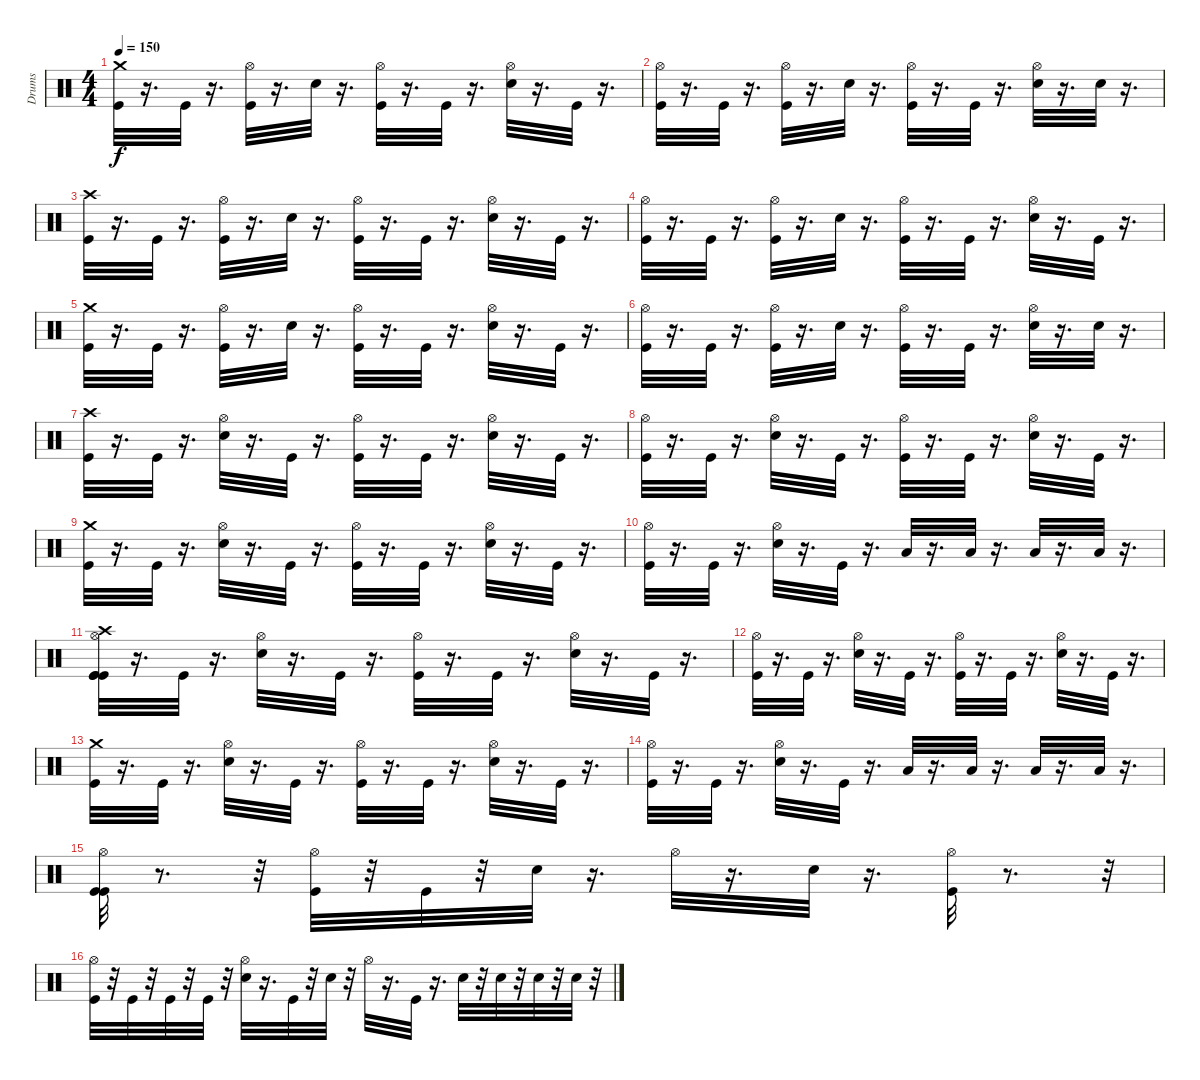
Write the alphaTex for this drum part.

\track ("Drums" "Drums") {instrument percussion}
\staff {score}
\articulation defaults
\ts (4 4)
\tempo 150
\clef neutral
\ks c
("Crash medium (hit)" "Kick (hit)").32{dy f} r.16{d} "Kick (hit)".32 r.16{d} ("Hi-Hat (open)" "Kick (hit)").32 r.16{d} "Electric Snare (hit)".32 r.16{d} ("Hi-Hat (open)" "Kick (hit)").32 r.16{d} "Kick (hit)".32 r.16{d} ("Hi-Hat (open)" "Electric Snare (hit)").32 r.16{d} "Kick (hit)".32 r.16{d} |
("Hi-Hat (open)" "Kick (hit)").32 r.16{d} "Kick (hit)".32 r.16{d} ("Hi-Hat (open)" "Kick (hit)").32 r.16{d} "Electric Snare (hit)".32 r.16{d} ("Hi-Hat (open)" "Kick (hit)").32 r.16{d} "Kick (hit)".32 r.16{d} ("Hi-Hat (open)" "Electric Snare (hit)").32 r.16{d} "Electric Snare (hit)".32 r.16{d} |
("Crash high (hit)" "Kick (hit)").32 r.16{d} "Kick (hit)".32 r.16{d} ("Hi-Hat (open)" "Kick (hit)").32 r.16{d} "Electric Snare (hit)".32 r.16{d} ("Hi-Hat (open)" "Kick (hit)").32 r.16{d} "Kick (hit)".32 r.16{d} ("Hi-Hat (open)" "Electric Snare (hit)").32 r.16{d} "Kick (hit)".32 r.16{d} |
("Hi-Hat (open)" "Kick (hit)").32 r.16{d} "Kick (hit)".32 r.16{d} ("Hi-Hat (open)" "Kick (hit)").32 r.16{d} "Electric Snare (hit)".32 r.16{d} ("Hi-Hat (open)" "Kick (hit)").32 r.16{d} "Kick (hit)".32 r.16{d} ("Hi-Hat (open)" "Electric Snare (hit)").32 r.16{d} "Kick (hit)".32 r.16{d} |
("Crash medium (hit)" "Kick (hit)").32 r.16{d} "Kick (hit)".32 r.16{d} ("Hi-Hat (open)" "Kick (hit)").32 r.16{d} "Electric Snare (hit)".32 r.16{d} ("Hi-Hat (open)" "Kick (hit)").32 r.16{d} "Kick (hit)".32 r.16{d} ("Hi-Hat (open)" "Electric Snare (hit)").32 r.16{d} "Kick (hit)".32 r.16{d} |
("Hi-Hat (open)" "Kick (hit)").32 r.16{d} "Kick (hit)".32 r.16{d} ("Hi-Hat (open)" "Kick (hit)").32 r.16{d} "Electric Snare (hit)".32 r.16{d} ("Hi-Hat (open)" "Kick (hit)").32 r.16{d} "Kick (hit)".32 r.16{d} ("Hi-Hat (open)" "Electric Snare (hit)").32 r.16{d} "Electric Snare (hit)".32 r.16{d} |
("Crash high (hit)" "Kick (hit)").32 r.16{d} "Kick (hit)".32 r.16{d} ("Hi-Hat (open)" "Electric Snare (hit)").32 r.16{d} "Kick (hit)".32 r.16{d} ("Hi-Hat (open)" "Kick (hit)").32 r.16{d} "Kick (hit)".32 r.16{d} ("Hi-Hat (open)" "Electric Snare (hit)").32 r.16{d} "Kick (hit)".32 r.16{d} |
("Hi-Hat (open)" "Kick (hit)").32 r.16{d} "Kick (hit)".32 r.16{d} ("Hi-Hat (open)" "Electric Snare (hit)").32 r.16{d} "Kick (hit)".32 r.16{d} ("Hi-Hat (open)" "Kick (hit)").32 r.16{d} "Kick (hit)".32 r.16{d} ("Hi-Hat (open)" "Electric Snare (hit)").32 r.16{d} "Kick (hit)".32 r.16{d} |
("Crash medium (hit)" "Kick (hit)").32 r.16{d} "Kick (hit)".32 r.16{d} ("Hi-Hat (open)" "Electric Snare (hit)").32 r.16{d} "Kick (hit)".32 r.16{d} ("Hi-Hat (open)" "Kick (hit)").32 r.16{d} "Kick (hit)".32 r.16{d} ("Hi-Hat (open)" "Electric Snare (hit)").32 r.16{d} "Kick (hit)".32 r.16{d} |
("Hi-Hat (open)" "Kick (hit)").32 r.16{d} "Kick (hit)".32 r.16{d} ("Hi-Hat (open)" "Electric Snare (hit)").32 r.16{d} "Kick (hit)".32 r.16{d} "Low Tom (hit)".32 r.16{d} "Low Tom (hit)".32 r.16{d} "Low Floor Tom (hit)".32 r.16{d} "Low Floor Tom (hit)".32 r.16{d} |
("Hi-Hat (open)" "Kick (hit)" "Kick (hit)" "Crash high (hit)" "Kick (hit)").32 r.16{d} "Kick (hit)".32 r.16{d} ("Hi-Hat (open)" "Electric Snare (hit)").32 r.16{d} "Kick (hit)".32 r.16{d} ("Hi-Hat (open)" "Kick (hit)").32 r.16{d} "Kick (hit)".32 r.16{d} ("Hi-Hat (open)" "Electric Snare (hit)").32 r.16{d} "Kick (hit)".32 r.16{d} |
("Hi-Hat (open)" "Kick (hit)").32 r.16{d} "Kick (hit)".32 r.16{d} ("Hi-Hat (open)" "Electric Snare (hit)").32 r.16{d} "Kick (hit)".32 r.16{d} ("Hi-Hat (open)" "Kick (hit)").32 r.16{d} "Kick (hit)".32 r.16{d} ("Hi-Hat (open)" "Electric Snare (hit)").32 r.16{d} "Kick (hit)".32 r.16{d} |
("Crash medium (hit)" "Kick (hit)").32 r.16{d} "Kick (hit)".32 r.16{d} ("Hi-Hat (open)" "Electric Snare (hit)").32 r.16{d} "Kick (hit)".32 r.16{d} ("Hi-Hat (open)" "Kick (hit)").32 r.16{d} "Kick (hit)".32 r.16{d} ("Hi-Hat (open)" "Electric Snare (hit)").32 r.16{d} "Kick (hit)".32 r.16{d} |
("Hi-Hat (open)" "Kick (hit)").32 r.16{d} "Kick (hit)".32 r.16{d} ("Hi-Hat (open)" "Electric Snare (hit)").32 r.16{d} "Kick (hit)".32 r.16{d} "Low Tom (hit)".32 r.16{d} "Low Tom (hit)".32 r.16{d} "Low Floor Tom (hit)".32 r.16{d} "Low Floor Tom (hit)".32 r.16{d} |
("Hi-Hat (open)" "Kick (hit)" "Kick (hit)").32 r.8{d} r.32 ("Hi-Hat (open)" "Kick (hit)").32 r.32 "Kick (hit)".32 r.32 "Electric Snare (hit)".32 r.16{d} "Hi-Hat (open)".32 r.16{d} "Electric Snare (hit)".32 r.16{d} ("Hi-Hat (open)" "Kick (hit)").32 r.8{d} r.32 |
("Hi-Hat (open)" "Kick (hit)").32 r.32 "Kick (hit)".32 r.32 "Kick (hit)".32 r.32 "Kick (hit)".32 r.32 ("Hi-Hat (open)" "Electric Snare (hit)").32 r.16{d} "Kick (hit)".32 r.32 "Electric Snare (hit)".32 r.32 "Hi-Hat (open)".32 r.16{d} "Kick (hit)".32 r.16{d} "Electric Snare (hit)".32 r.32 "Electric Snare (hit)".32 r.32 "Electric Snare (hit)".32 r.32 "Electric Snare (hit)".32 r.32
